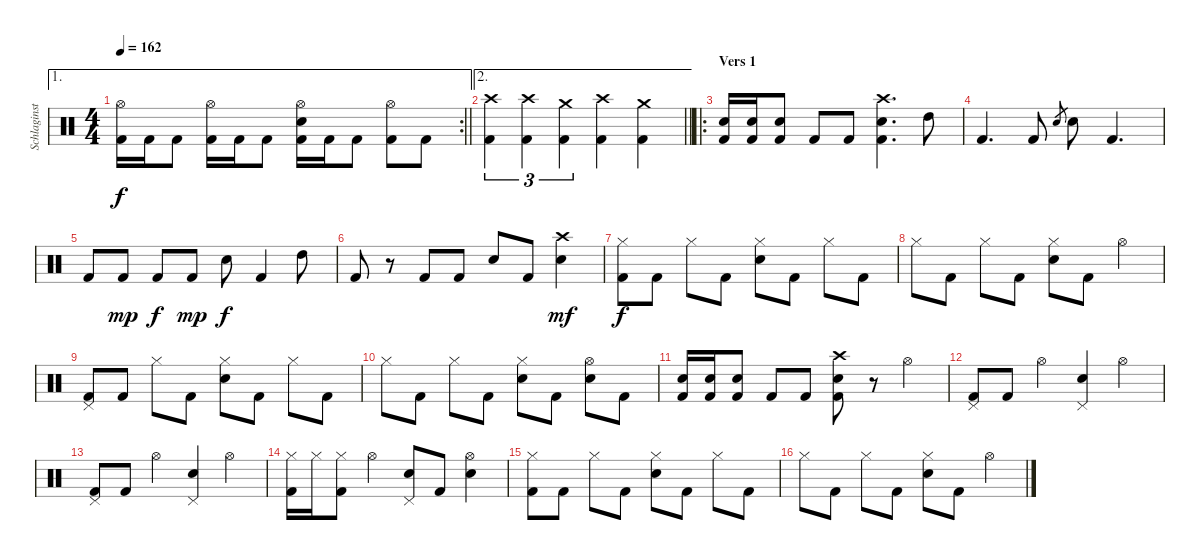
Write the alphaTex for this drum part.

\track ("Schlaginstrumente - Auswahl" "Schlaginst") {instrument percussion}
\staff {score}
\articulation defaults
\ae 1
\rc 2
\ts (4 4)
\tempo 162
\clef neutral
\barLineRight lightlight
\ks c
("Hi-Hat (open)" "Kick (hit) 2").16{dy f} "Kick (hit) 2".16 "Kick (hit) 2".8 ("Hi-Hat (open)" "Kick (hit) 2").16 "Kick (hit) 2".16 "Kick (hit) 2".8 ("Hi-Hat (open)" "Electric Snare (hit)" "Kick (hit) 2").16 "Kick (hit) 2".16 "Kick (hit) 2".8 ("Hi-Hat (open)" "Kick (hit) 2").8 "Kick (hit) 2".8 |
\ae 2
\barLineRight lightlight
("Crash high (hit)" "Kick (hit) 2").4{tu (3 2)} ("Crash high (hit)" "Kick (hit) 2").4{tu (3 2)} ("Crash medium (hit)" "Kick (hit) 2").4{tu (3 2)} ("Crash high (hit)" "Kick (hit) 2").4 ("Crash medium (hit)" "Kick (hit) 2").4 |
\ro
\section ("" "Vers 1")
("Electric Snare (hit)" "Kick (hit) 2").16 ("Electric Snare (hit)" "Kick (hit) 2").16 ("Electric Snare (hit)" "Kick (hit) 2").8 "Kick (hit) 2".8 "Kick (hit) 2".8 ("Crash high (hit)" "Electric Snare (hit)" "Kick (hit) 2").4{d} "High Tom (hit)".8 |
"Kick (hit) 2".4{d} "Kick (hit) 2".8 "Electric Snare (hit)"{h}.8{gr} "Electric Snare (hit)".8 "Kick (hit) 2".4{d} |
"Kick (hit) 2".8 "Kick (hit) 2".8{dy mp} "Kick (hit) 2".8{dy f} "Kick (hit) 2".8{dy mp} "Electric Snare (hit)".8{dy f} "Kick (hit) 2".4 "High Tom (hit)".8 |
"Kick (hit) 2".8 r.8 "Kick (hit) 2".8 "Kick (hit) 2".8 "Electric Snare (hit)".8 "Kick (hit) 2".8 ("Crash high (hit)" "Electric Snare (hit)").4{dy mf} |
("Hi-Hat (closed)" "Kick (hit) 2").8{dy f} "Kick (hit) 2".8 "Hi-Hat (closed)".8 "Kick (hit) 2".8 ("Hi-Hat (closed)" "Electric Snare (hit)").8 "Kick (hit) 2".8 "Hi-Hat (closed)".8 "Kick (hit) 2".8 |
"Hi-Hat (closed)".8 "Kick (hit) 2".8 "Hi-Hat (closed)".8 "Kick (hit) 2".8 ("Hi-Hat (closed)" "Electric Snare (hit)").8 "Kick (hit) 2".8 "Hi-Hat (open)".4 |
("Pedal Hi-Hat (hit)" "Kick (hit) 2").8 "Kick (hit) 2".8 "Hi-Hat (closed)".8 "Kick (hit) 2".8 ("Hi-Hat (closed)" "Electric Snare (hit)").8 "Kick (hit) 2".8 "Hi-Hat (closed)".8 "Kick (hit) 2".8 |
"Hi-Hat (closed)".8 "Kick (hit) 2".8 "Hi-Hat (closed)".8 "Kick (hit) 2".8 ("Hi-Hat (closed)" "Electric Snare (hit)").8 "Kick (hit) 2".8 ("Hi-Hat (open)" "Electric Snare (hit)").8 "Kick (hit) 2".8 |
("Electric Snare (hit)" "Kick (hit) 2").16 ("Electric Snare (hit)" "Kick (hit) 2").16 ("Electric Snare (hit)" "Kick (hit) 2").8 "Kick (hit) 2".8 "Kick (hit) 2".8 ("Crash high (hit)" "Electric Snare (hit)" "Kick (hit) 2").8 r.8 "Hi-Hat (open)".4 |
("Pedal Hi-Hat (hit)" "Kick (hit) 2").8 "Kick (hit) 2".8 "Hi-Hat (open)".4 ("Pedal Hi-Hat (hit)" "Electric Snare (hit)").4 "Hi-Hat (open)".4 |
("Pedal Hi-Hat (hit)" "Kick (hit) 2").8 "Kick (hit) 2".8 "Hi-Hat (open)".4 ("Pedal Hi-Hat (hit)" "Electric Snare (hit)").4 "Hi-Hat (open)".4 |
("Hi-Hat (closed)" "Kick (hit) 2").16 "Hi-Hat (closed)".16 ("Hi-Hat (closed)" "Kick (hit) 2").8 "Hi-Hat (open)".4 ("Pedal Hi-Hat (hit)" "Electric Snare (hit)").8 "Kick (hit) 2".8 ("Hi-Hat (open)" "Electric Snare (hit)").4 |
("Hi-Hat (closed)" "Kick (hit) 2").8 "Kick (hit) 2".8 "Hi-Hat (closed)".8 "Kick (hit) 2".8 ("Hi-Hat (closed)" "Electric Snare (hit)").8 "Kick (hit) 2".8 "Hi-Hat (closed)".8 "Kick (hit) 2".8 |
"Hi-Hat (closed)".8 "Kick (hit) 2".8 "Hi-Hat (closed)".8 "Kick (hit) 2".8 ("Hi-Hat (closed)" "Electric Snare (hit)").8 "Kick (hit) 2".8 "Hi-Hat (open)".4
